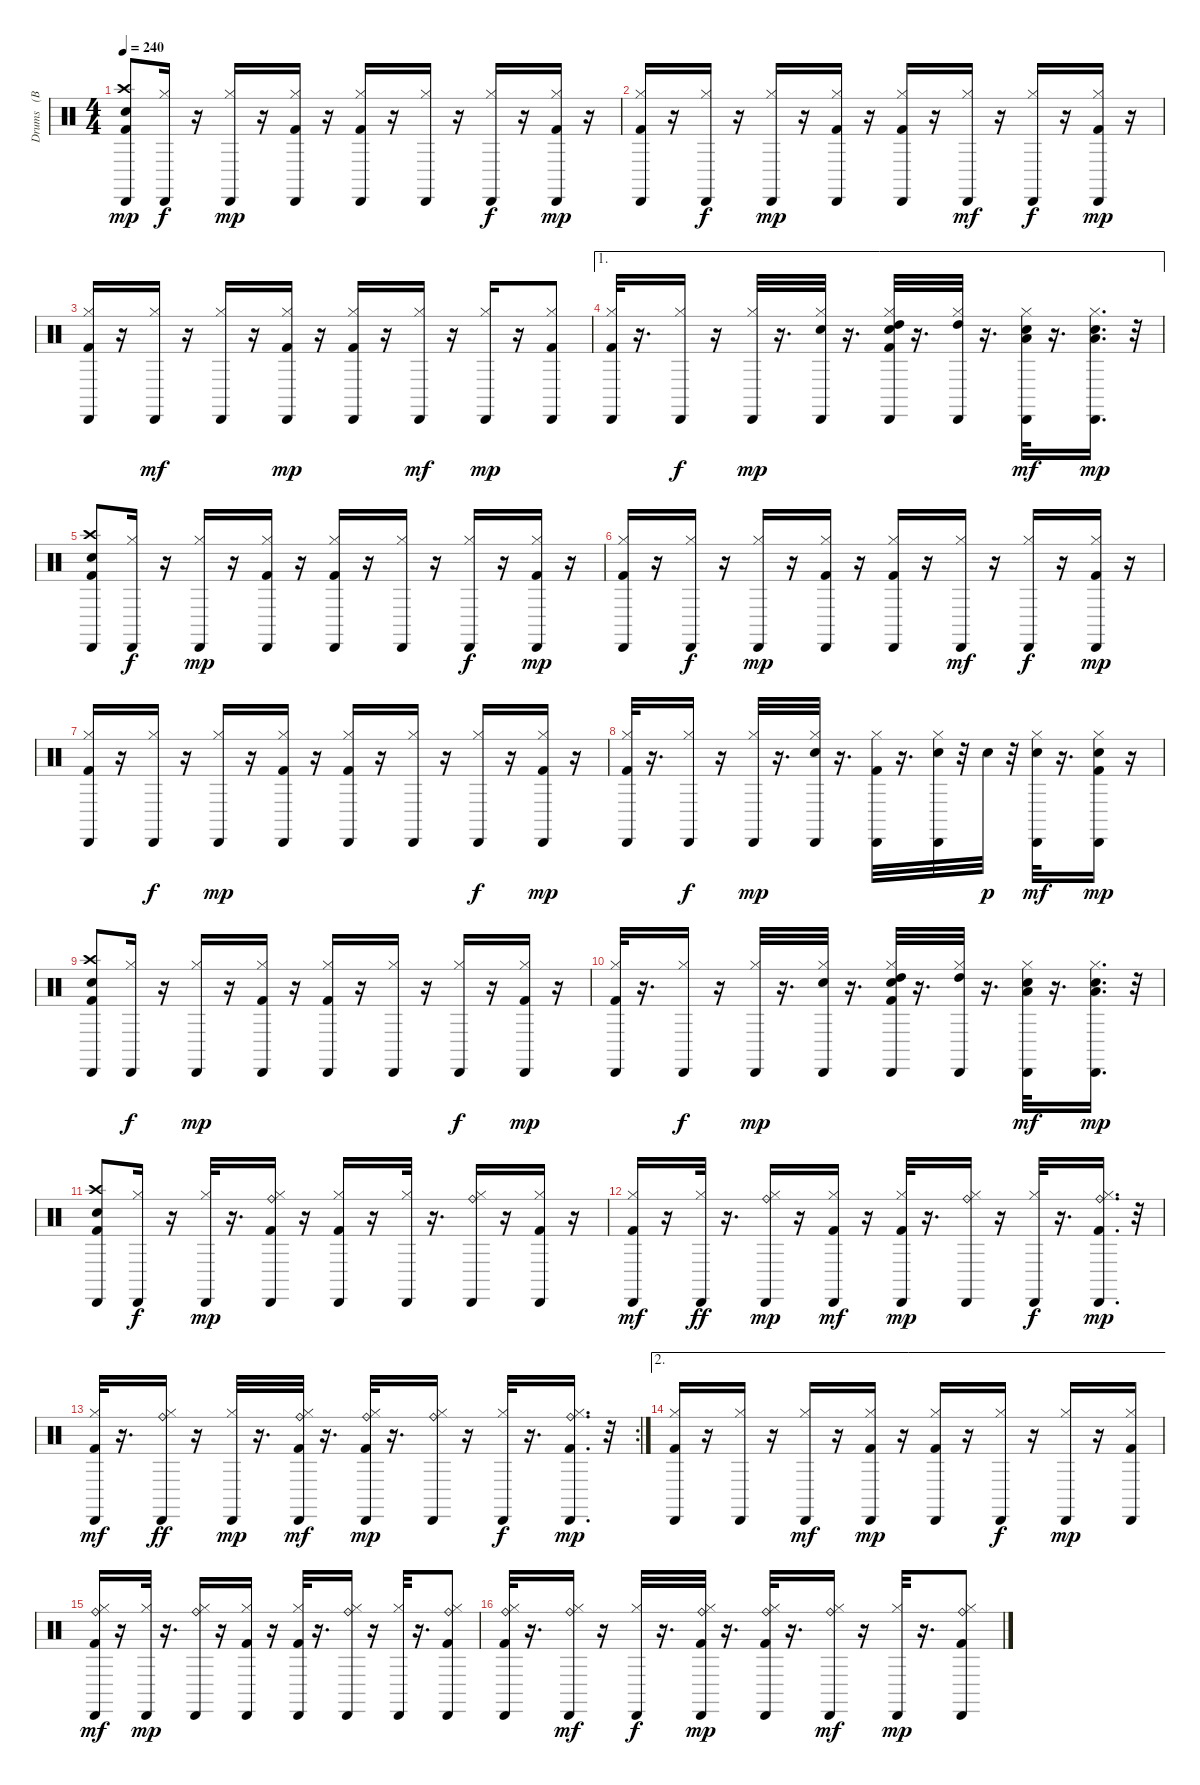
\track ("Drums   (BB)" "Drums   (B") {instrument percussion}
\staff {score}
\articulation defaults
\ts (4 4)
\tempo 240
\clef neutral
\ks c
("Electric Snare (hit)" "Crash high (hit)" "Kick (hit) 2" "Cabasa (hit)").8{dy mp} ("Hi-Hat (closed)" "Cabasa (hit)").16{dy f} r.16 ("Hi-Hat (closed)" "Cabasa (hit)").16{dy mp} r.16 ("Kick (hit) 2" "Hi-Hat (closed)" "Cabasa (hit)").16 r.16 ("Kick (hit) 2" "Hi-Hat (closed)" "Cabasa (hit)").16 r.16 ("Hi-Hat (closed)" "Cabasa (hit)").16 r.16 ("Hi-Hat (closed)" "Cabasa (hit)").16{dy f} r.16 ("Kick (hit) 2" "Hi-Hat (closed)" "Cabasa (hit)").16{dy mp} r.16 |
("Kick (hit) 2" "Hi-Hat (closed)" "Cabasa (hit)").16 r.16 ("Hi-Hat (closed)" "Cabasa (hit)").16{dy f} r.16 ("Hi-Hat (closed)" "Cabasa (hit)").16{dy mp} r.16 ("Kick (hit) 2" "Hi-Hat (closed)" "Cabasa (hit)").16 r.16 ("Kick (hit) 2" "Hi-Hat (closed)" "Cabasa (hit)").16 r.16 ("Hi-Hat (closed)" "Cabasa (hit)").16{dy mf} r.16 ("Hi-Hat (closed)" "Cabasa (hit)").16{dy f} r.16 ("Kick (hit) 2" "Hi-Hat (closed)" "Cabasa (hit)").16{dy mp} r.16 |
("Kick (hit) 2" "Hi-Hat (closed)" "Cabasa (hit)").16 r.16 ("Hi-Hat (closed)" "Cabasa (hit)").16{dy mf} r.16 ("Hi-Hat (closed)" "Cabasa (hit)").16 r.16 ("Kick (hit) 2" "Hi-Hat (closed)" "Cabasa (hit)").16{dy mp} r.16 ("Kick (hit) 2" "Hi-Hat (closed)" "Cabasa (hit)").16 r.16 ("Hi-Hat (closed)" "Cabasa (hit)").16{dy mf} r.16 ("Hi-Hat (closed)" "Cabasa (hit)").16{dy mp} r.16 ("Kick (hit) 2" "Hi-Hat (closed)" "Cabasa (hit)").8 |
\ae 1
("Kick (hit) 2" "Hi-Hat (closed)" "Cabasa (hit)").32 r.16{d} ("Hi-Hat (closed)" "Cabasa (hit)").16{dy f} r.16 ("Hi-Hat (closed)" "Cabasa (hit)").32{dy mp} r.16{d} ("Electric Snare (hit)" "Hi-Hat (closed)" "Cabasa (hit)").32 r.16{d} ("High Tom (hit)" "Electric Snare (hit)" "Kick (hit) 2" "Hi-Hat (closed)" "Cabasa (hit)").32 r.16{d} ("High Tom (hit)" "Hi-Hat (closed)" "Cabasa (hit)").32 r.16{d} ("Low Tom (hit)" "Electric Snare (hit)" "Hi-Hat (closed)" "Cabasa (hit)").32{dy mf} r.16{d} ("Low Tom (hit)" "Electric Snare (hit)" "Hi-Hat (closed)" "Cabasa (hit)").16{d dy mp} r.32 |
("Electric Snare (hit)" "Crash high (hit)" "Kick (hit) 2" "Cabasa (hit)").8 ("Hi-Hat (closed)" "Cabasa (hit)").16{dy f} r.16 ("Hi-Hat (closed)" "Cabasa (hit)").16{dy mp} r.16 ("Kick (hit) 2" "Hi-Hat (closed)" "Cabasa (hit)").16 r.16 ("Kick (hit) 2" "Hi-Hat (closed)" "Cabasa (hit)").16 r.16 ("Hi-Hat (closed)" "Cabasa (hit)").16 r.16 ("Hi-Hat (closed)" "Cabasa (hit)").16{dy f} r.16 ("Kick (hit) 2" "Hi-Hat (closed)" "Cabasa (hit)").16{dy mp} r.16 |
("Kick (hit) 2" "Hi-Hat (closed)" "Cabasa (hit)").16 r.16 ("Hi-Hat (closed)" "Cabasa (hit)").16{dy f} r.16 ("Hi-Hat (closed)" "Cabasa (hit)").16{dy mp} r.16 ("Kick (hit) 2" "Hi-Hat (closed)" "Cabasa (hit)").16 r.16 ("Kick (hit) 2" "Hi-Hat (closed)" "Cabasa (hit)").16 r.16 ("Hi-Hat (closed)" "Cabasa (hit)").16{dy mf} r.16 ("Hi-Hat (closed)" "Cabasa (hit)").16{dy f} r.16 ("Kick (hit) 2" "Hi-Hat (closed)" "Cabasa (hit)").16{dy mp} r.16 |
("Kick (hit) 2" "Hi-Hat (closed)" "Cabasa (hit)").16 r.16 ("Hi-Hat (closed)" "Cabasa (hit)").16{dy f} r.16 ("Hi-Hat (closed)" "Cabasa (hit)").16{dy mp} r.16 ("Kick (hit) 2" "Hi-Hat (closed)" "Cabasa (hit)").16 r.16 ("Kick (hit) 2" "Hi-Hat (closed)" "Cabasa (hit)").16 r.16 ("Hi-Hat (closed)" "Cabasa (hit)").16 r.16 ("Hi-Hat (closed)" "Cabasa (hit)").16{dy f} r.16 ("Kick (hit) 2" "Hi-Hat (closed)" "Cabasa (hit)").16{dy mp} r.16 |
("Kick (hit) 2" "Hi-Hat (closed)" "Cabasa (hit)").32 r.16{d} ("Hi-Hat (closed)" "Cabasa (hit)").16{dy f} r.16 ("Hi-Hat (closed)" "Cabasa (hit)").32{dy mp} r.16{d} ("Electric Snare (hit)" "Hi-Hat (closed)" "Cabasa (hit)").32 r.16{d} ("Kick (hit) 2" "Hi-Hat (closed)" "Cabasa (hit)").32 r.16{d} ("Electric Snare (hit)" "Hi-Hat (closed)" "Cabasa (hit)").32 r.32 "Snare (hit) 2".32{dy p} r.32 ("Electric Snare (hit)" "Hi-Hat (closed)" "Cabasa (hit)").32{dy mf} r.16{d} ("Electric Snare (hit)" "Kick (hit) 2" "Hi-Hat (closed)" "Cabasa (hit)").16{dy mp} r.16 |
("Electric Snare (hit)" "Crash high (hit)" "Kick (hit) 2" "Cabasa (hit)").8 ("Hi-Hat (closed)" "Cabasa (hit)").16{dy f} r.16 ("Hi-Hat (closed)" "Cabasa (hit)").16{dy mp} r.16 ("Kick (hit) 2" "Hi-Hat (closed)" "Cabasa (hit)").16 r.16 ("Kick (hit) 2" "Hi-Hat (closed)" "Cabasa (hit)").16 r.16 ("Hi-Hat (closed)" "Cabasa (hit)").16 r.16 ("Hi-Hat (closed)" "Cabasa (hit)").16{dy f} r.16 ("Kick (hit) 2" "Hi-Hat (closed)" "Cabasa (hit)").16{dy mp} r.16 |
("Kick (hit) 2" "Hi-Hat (closed)" "Cabasa (hit)").32 r.16{d} ("Hi-Hat (closed)" "Cabasa (hit)").16{dy f} r.16 ("Hi-Hat (closed)" "Cabasa (hit)").32{dy mp} r.16{d} ("Electric Snare (hit)" "Hi-Hat (closed)" "Cabasa (hit)").32 r.16{d} ("High Tom (hit)" "Electric Snare (hit)" "Kick (hit) 2" "Hi-Hat (closed)" "Cabasa (hit)").32 r.16{d} ("High Tom (hit)" "Hi-Hat (closed)" "Cabasa (hit)").32 r.16{d} ("Low Tom (hit)" "Electric Snare (hit)" "Hi-Hat (closed)" "Cabasa (hit)").32{dy mf} r.16{d} ("Low Tom (hit)" "Electric Snare (hit)" "Hi-Hat (closed)" "Cabasa (hit)").16{d dy mp} r.32 |
("Electric Snare (hit)" "Crash high (hit)" "Kick (hit) 2" "Cabasa (hit)").8 ("Hi-Hat (closed)" "Cabasa (hit)").16{dy f} r.16 ("Hi-Hat (closed)" "Cabasa (hit)").32{dy mp} r.16{d} ("Ride (bell)" "Kick (hit) 2" "Hi-Hat (closed)" "Cabasa (hit)").16 r.16 ("Kick (hit) 2" "Hi-Hat (closed)" "Cabasa (hit)").16 r.16 ("Hi-Hat (closed)" "Cabasa (hit)").32 r.16{d} ("Ride (bell)" "Hi-Hat (closed)" "Cabasa (hit)").16 r.16 ("Kick (hit) 2" "Hi-Hat (closed)" "Cabasa (hit)").16 r.16 |
("Kick (hit) 2" "Hi-Hat (closed)" "Cabasa (hit)").16{dy mf} r.16 ("Hi-Hat (closed)" "Cabasa (hit)").32{dy ff} r.16{d} ("Ride (bell)" "Hi-Hat (closed)" "Cabasa (hit)").16{dy mp} r.16 ("Kick (hit) 2" "Hi-Hat (closed)" "Cabasa (hit)").16{dy mf} r.16 ("Kick (hit) 2" "Hi-Hat (closed)" "Cabasa (hit)").32{dy mp} r.16{d} ("Ride (bell)" "Hi-Hat (closed)" "Cabasa (hit)").16 r.16 ("Hi-Hat (closed)" "Cabasa (hit)").32{dy f} r.16{d} ("Ride (bell)" "Kick (hit) 2" "Hi-Hat (closed)" "Cabasa (hit)").16{d dy mp} r.32 |
\rc 2
("Kick (hit) 2" "Hi-Hat (closed)" "Cabasa (hit)").32{dy mf} r.16{d} ("Ride (bell)" "Hi-Hat (closed)" "Cabasa (hit)").16{dy ff} r.16 ("Hi-Hat (closed)" "Cabasa (hit)").32{dy mp} r.16{d} ("Ride (bell)" "Kick (hit) 2" "Hi-Hat (closed)" "Cabasa (hit)").32{dy mf} r.16{d} ("Ride (bell)" "Kick (hit) 2" "Hi-Hat (closed)" "Cabasa (hit)").32{dy mp} r.16{d} ("Ride (bell)" "Hi-Hat (closed)" "Cabasa (hit)").16 r.16 ("Hi-Hat (closed)" "Cabasa (hit)").32{dy f} r.16{d} ("Ride (bell)" "Kick (hit) 2" "Hi-Hat (closed)" "Cabasa (hit)").16{d dy mp} r.32 |
\ae 2
("Kick (hit) 2" "Hi-Hat (closed)" "Cabasa (hit)").16 r.16 ("Hi-Hat (closed)" "Cabasa (hit)").16 r.16 ("Hi-Hat (closed)" "Cabasa (hit)").16{dy mf} r.16 ("Kick (hit) 2" "Hi-Hat (closed)" "Cabasa (hit)").16{dy mp} r.16 ("Kick (hit) 2" "Hi-Hat (closed)" "Cabasa (hit)").16 r.16 ("Hi-Hat (closed)" "Cabasa (hit)").16{dy f} r.16 ("Hi-Hat (closed)" "Cabasa (hit)").16{dy mp} r.16 ("Kick (hit) 2" "Hi-Hat (closed)" "Cabasa (hit)").16 |
("Ride (bell)" "Kick (hit) 2" "Hi-Hat (closed)" "Cabasa (hit)").16{dy mf} r.16 ("Hi-Hat (closed)" "Cabasa (hit)").32{dy mp} r.16{d} ("Ride (bell)" "Hi-Hat (closed)" "Cabasa (hit)").16 r.16 ("Kick (hit) 2" "Hi-Hat (closed)" "Cabasa (hit)").16 r.16 ("Kick (hit) 2" "Hi-Hat (closed)" "Cabasa (hit)").32 r.16{d} ("Ride (bell)" "Hi-Hat (closed)" "Cabasa (hit)").16 r.16 ("Hi-Hat (closed)" "Cabasa (hit)").32 r.16{d} ("Ride (bell)" "Kick (hit) 2" "Hi-Hat (closed)" "Cabasa (hit)").8 |
("Ride (bell)" "Kick (hit) 2" "Hi-Hat (closed)" "Cabasa (hit)").32 r.16{d} ("Ride (bell)" "Hi-Hat (closed)" "Cabasa (hit)").16{dy mf} r.16 ("Hi-Hat (closed)" "Cabasa (hit)").32{dy f} r.16{d} ("Ride (bell)" "Kick (hit) 2" "Hi-Hat (closed)" "Cabasa (hit)").32{dy mp} r.16{d} ("Ride (bell)" "Kick (hit) 2" "Hi-Hat (closed)" "Cabasa (hit)").32 r.16{d} ("Ride (bell)" "Hi-Hat (closed)" "Cabasa (hit)").16{dy mf} r.16 ("Hi-Hat (closed)" "Cabasa (hit)").32{dy mp} r.16{d} ("Ride (bell)" "Kick (hit) 2" "Hi-Hat (closed)" "Cabasa (hit)").8
